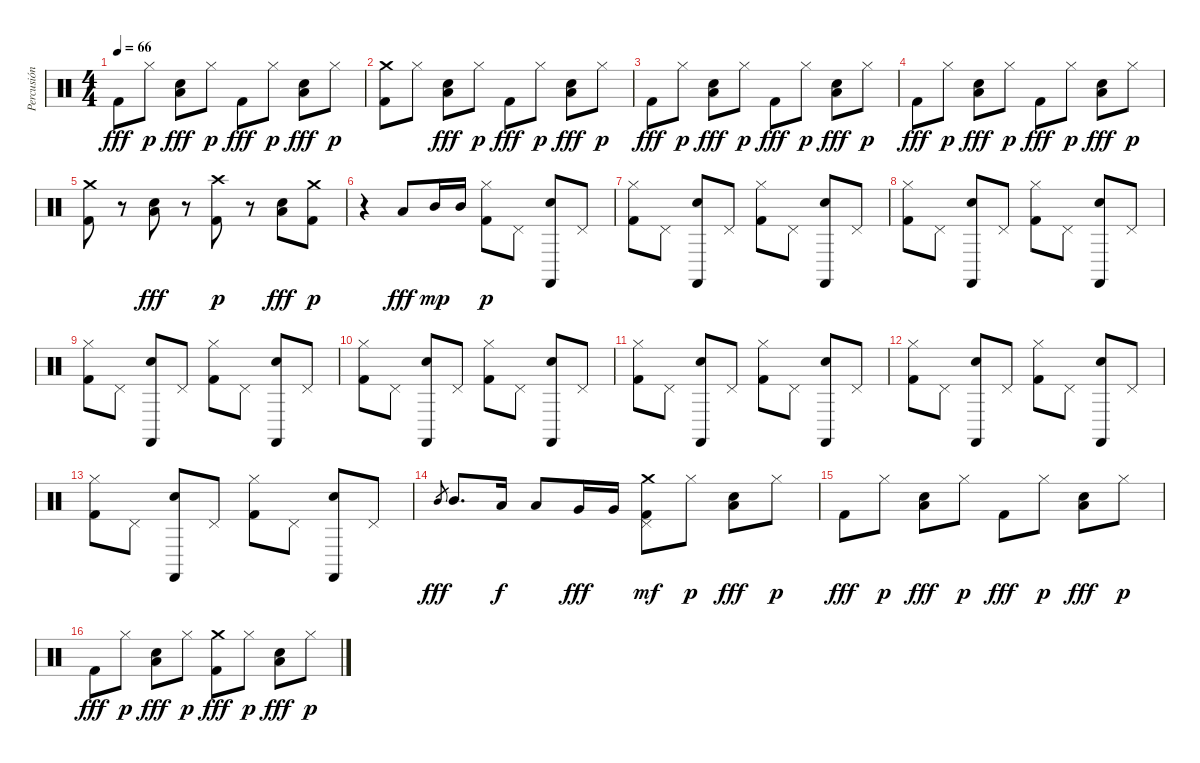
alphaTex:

\track ("Percusión" "Percusión") {instrument percussion}
\staff {score}
\articulation defaults
\ts (4 4)
\tempo 66
\clef neutral
\ks c "Kick (hit) 2".8{dy fff} "Hi-Hat (closed)".8{dy p}
("Electric Snare (hit)" "Low Floor Tom (hit)").8{dy fff} "Hi-Hat (closed)".8{dy p} "Kick (hit) 2".8{dy fff} "Hi-Hat (closed)".8{dy p} ("Electric Snare (hit)" "Low Floor Tom (hit)").8{dy fff} "Hi-Hat (closed)".8{dy p} |
("Kick (hit) 2" "Crash medium (hit)").8 "Hi-Hat (closed)".8 ("Electric Snare (hit)" "Low Floor Tom (hit)").8{dy fff} "Hi-Hat (closed)".8{dy p} "Kick (hit) 2".8{dy fff} "Hi-Hat (closed)".8{dy p} ("Electric Snare (hit)" "Low Floor Tom (hit)").8{dy fff} "Hi-Hat (closed)".8{dy p} |
"Kick (hit) 2".8{dy fff} "Hi-Hat (closed)".8{dy p} ("Electric Snare (hit)" "Low Floor Tom (hit)").8{dy fff} "Hi-Hat (closed)".8{dy p} "Kick (hit) 2".8{dy fff} "Hi-Hat (closed)".8{dy p} ("Electric Snare (hit)" "Low Floor Tom (hit)").8{dy fff} "Hi-Hat (closed)".8{dy p} |
"Kick (hit) 2".8{dy fff} "Hi-Hat (closed)".8{dy p} ("Electric Snare (hit)" "Low Floor Tom (hit)").8{dy fff} "Hi-Hat (closed)".8{dy p} "Kick (hit) 2".8{dy fff} "Hi-Hat (closed)".8{dy p} ("Electric Snare (hit)" "Low Floor Tom (hit)").8{dy fff} "Hi-Hat (closed)".8{dy p} |
("Kick (hit) 2" "Crash medium (hit)").8 r.8 ("Electric Snare (hit)" "Low Floor Tom (hit)").8{dy fff} r.8 ("Kick (hit) 2" "Crash high (hit)").8{dy p} r.8 ("Electric Snare (hit)" "Low Floor Tom (hit)").8{dy fff} ("Kick (hit) 2" "Crash medium (hit)").8{dy p} |
r.4 "Low Tom (hit)".8{dy fff} "Mid Tom (hit)".16{dy mp} "Mid Tom (hit)".16 ("Kick (hit) 2" "Hi-Hat (closed)").8{dy p} "Pedal Hi-Hat (hit)".8 ("Castanets (hit)" "Electric Snare (hit)").8 "Pedal Hi-Hat (hit)".8 |
("Kick (hit) 2" "Hi-Hat (closed)").8 "Pedal Hi-Hat (hit)".8 ("Castanets (hit)" "Electric Snare (hit)").8 "Pedal Hi-Hat (hit)".8 ("Kick (hit) 2" "Hi-Hat (closed)").8 "Pedal Hi-Hat (hit)".8 ("Castanets (hit)" "Electric Snare (hit)").8 "Pedal Hi-Hat (hit)".8 |
("Kick (hit) 2" "Hi-Hat (closed)").8 "Pedal Hi-Hat (hit)".8 ("Castanets (hit)" "Electric Snare (hit)").8 "Pedal Hi-Hat (hit)".8 ("Kick (hit) 2" "Hi-Hat (closed)").8 "Pedal Hi-Hat (hit)".8 ("Castanets (hit)" "Electric Snare (hit)").8 "Pedal Hi-Hat (hit)".8 |
("Kick (hit) 2" "Hi-Hat (closed)").8 "Pedal Hi-Hat (hit)".8 ("Castanets (hit)" "Electric Snare (hit)").8 "Pedal Hi-Hat (hit)".8 ("Kick (hit) 2" "Hi-Hat (closed)").8 "Pedal Hi-Hat (hit)".8 ("Castanets (hit)" "Electric Snare (hit)").8 "Pedal Hi-Hat (hit)".8 |
("Kick (hit) 2" "Hi-Hat (closed)").8 "Pedal Hi-Hat (hit)".8 ("Castanets (hit)" "Electric Snare (hit)").8 "Pedal Hi-Hat (hit)".8 ("Kick (hit) 2" "Hi-Hat (closed)").8 "Pedal Hi-Hat (hit)".8 ("Castanets (hit)" "Electric Snare (hit)").8 "Pedal Hi-Hat (hit)".8 |
("Kick (hit) 2" "Hi-Hat (closed)").8 "Pedal Hi-Hat (hit)".8 ("Castanets (hit)" "Electric Snare (hit)").8 "Pedal Hi-Hat (hit)".8 ("Kick (hit) 2" "Hi-Hat (closed)").8 "Pedal Hi-Hat (hit)".8 ("Castanets (hit)" "Electric Snare (hit)").8 "Pedal Hi-Hat (hit)".8 |
("Kick (hit) 2" "Hi-Hat (closed)").8 "Pedal Hi-Hat (hit)".8 ("Castanets (hit)" "Electric Snare (hit)").8 "Pedal Hi-Hat (hit)".8 ("Kick (hit) 2" "Hi-Hat (closed)").8 "Pedal Hi-Hat (hit)".8 ("Castanets (hit)" "Electric Snare (hit)").8 "Pedal Hi-Hat (hit)".8 |
("Kick (hit) 2" "Hi-Hat (closed)").8 "Pedal Hi-Hat (hit)".8 ("Castanets (hit)" "Electric Snare (hit)").8 "Pedal Hi-Hat (hit)".8 ("Kick (hit) 2" "Hi-Hat (closed)").8 "Pedal Hi-Hat (hit)".8 ("Castanets (hit)" "Electric Snare (hit)").8 "Pedal Hi-Hat (hit)".8 |
"Mid Tom (hit)".8{gr dy fff} "Mid Tom (hit)".8{d balance 2} "Low Tom (hit)".16{dy f balance 8} "Low Tom (hit)".8 "Very Low Tom (hit)".16{dy fff balance 16} "Very Low Tom (hit)".16 ("Kick (hit) 2" "Pedal Hi-Hat (hit)" "Crash medium (hit)").8{dy mf balance 8} "Hi-Hat (closed)".8{dy p} ("Electric Snare (hit)" "Low Floor Tom (hit)").8{dy fff} "Hi-Hat (closed)".8{dy p} |
"Kick (hit) 2".8{dy fff} "Hi-Hat (closed)".8{dy p} ("Electric Snare (hit)" "Low Floor Tom (hit)").8{dy fff} "Hi-Hat (closed)".8{dy p} "Kick (hit) 2".8{dy fff} "Hi-Hat (closed)".8{dy p} ("Electric Snare (hit)" "Low Floor Tom (hit)").8{dy fff} "Hi-Hat (closed)".8{dy p} |
"Kick (hit) 2".8{dy fff} "Hi-Hat (closed)".8{dy p} ("Electric Snare (hit)" "Low Floor Tom (hit)").8{dy fff} "Hi-Hat (closed)".8{dy p} ("Kick (hit) 2" "Crash medium (hit)").8{dy fff} "Hi-Hat (closed)".8{dy p} ("Electric Snare (hit)" "Low Floor Tom (hit)").8{dy fff} "Hi-Hat (closed)".8{dy p}
